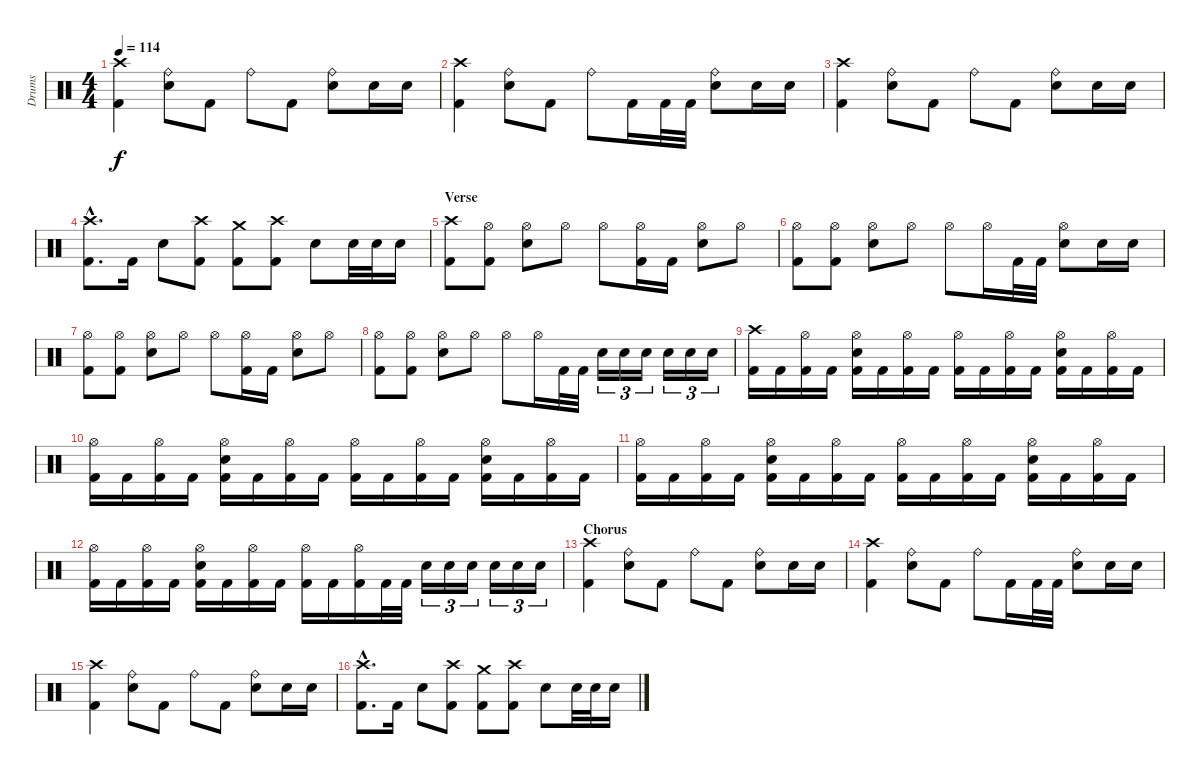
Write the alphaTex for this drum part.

\track ("Drums" "Drums") {instrument percussion}
\staff {score}
\articulation defaults
\ts (4 4)
\tempo 114
\clef neutral
\ks c
("Crash high (hit)" "Kick (hit) 2").4{dy f} ("Ride (bell)" "Electric Snare (hit)").8 "Kick (hit) 2".8 "Ride (bell)".8 "Kick (hit) 2".8 ("Ride (bell)" "Electric Snare (hit)").8 "Electric Snare (hit)".16 "Electric Snare (hit)".16 |
("Crash high (hit)" "Kick (hit) 2").4 ("Ride (bell)" "Electric Snare (hit)").8 "Kick (hit) 2".8 "Ride (bell)".8 "Kick (hit) 2".16 "Kick (hit) 2".32 "Kick (hit) 2".32 ("Ride (bell)" "Electric Snare (hit)").8 "Electric Snare (hit)".16 "Electric Snare (hit)".16 |
("Crash high (hit)" "Kick (hit) 2").4 ("Ride (bell)" "Electric Snare (hit)").8 "Kick (hit) 2".8 "Ride (bell)".8 "Kick (hit) 2".8 ("Ride (bell)" "Electric Snare (hit)").8 "Electric Snare (hit)".16 "Electric Snare (hit)".16 |
("Crash high (hit)"{hac} "Kick (hit) 2"{hac}).8{d} "Kick (hit) 2".16 "Electric Snare (hit)".8 ("Crash high (hit)" "Kick (hit) 2").8 ("Crash medium (hit)" "Kick (hit) 2").8 ("Crash high (hit)" "Kick (hit) 2").8 "Electric Snare (hit)".8 "Electric Snare (hit)".32 "Electric Snare (hit)".32 "Electric Snare (hit)".16 |
\section ("" "Verse")
("Crash high (hit)" "Kick (hit) 2").8 ("Hi-Hat (open)" "Kick (hit) 2").8 ("Hi-Hat (open)" "Electric Snare (hit)").8 "Hi-Hat (open)".8 "Hi-Hat (open)".8 ("Hi-Hat (open)" "Kick (hit) 2").16 "Kick (hit) 2".16 ("Hi-Hat (open)" "Electric Snare (hit)").8 "Hi-Hat (open)".8 |
("Hi-Hat (open)" "Kick (hit) 2").8 ("Hi-Hat (open)" "Kick (hit) 2").8 ("Hi-Hat (open)" "Electric Snare (hit)").8 "Hi-Hat (open)".8 "Hi-Hat (open)".8 "Hi-Hat (open)".16 "Kick (hit) 2".32 "Kick (hit) 2".32 ("Hi-Hat (open)" "Electric Snare (hit)").8 "Electric Snare (hit)".16 "Electric Snare (hit)".16 |
("Hi-Hat (open)" "Kick (hit) 2").8 ("Hi-Hat (open)" "Kick (hit) 2").8 ("Hi-Hat (open)" "Electric Snare (hit)").8 "Hi-Hat (open)".8 "Hi-Hat (open)".8 ("Hi-Hat (open)" "Kick (hit) 2").16 "Kick (hit) 2".16 ("Hi-Hat (open)" "Electric Snare (hit)").8 "Hi-Hat (open)".8 |
("Hi-Hat (open)" "Kick (hit) 2").8 ("Hi-Hat (open)" "Kick (hit) 2").8 ("Hi-Hat (open)" "Electric Snare (hit)").8 "Hi-Hat (open)".8 "Hi-Hat (open)".8 "Hi-Hat (open)".16 "Kick (hit) 2".32 "Kick (hit) 2".32 "Electric Snare (hit)".16{tu (3 2)} "Electric Snare (hit)".16{tu (3 2)} "Electric Snare (hit)".16{tu (3 2)} "Electric Snare (hit)".16{tu (3 2)} "Electric Snare (hit)".16{tu (3 2)} "Electric Snare (hit)".16{tu (3 2)} |
("Crash high (hit)" "Kick (hit) 2").16 "Kick (hit) 2".16 ("Hi-Hat (open)" "Kick (hit) 2").16 "Kick (hit) 2".16 ("Hi-Hat (open)" "Electric Snare (hit)" "Kick (hit) 2").16 "Kick (hit) 2".16 ("Hi-Hat (open)" "Kick (hit) 2").16 "Kick (hit) 2".16 ("Hi-Hat (open)" "Kick (hit) 2").16 "Kick (hit) 2".16 ("Hi-Hat (open)" "Kick (hit) 2").16 "Kick (hit) 2".16 ("Hi-Hat (open)" "Electric Snare (hit)" "Kick (hit) 2").16 "Kick (hit) 2".16 ("Hi-Hat (open)" "Kick (hit) 2").16 "Kick (hit) 2".16 |
("Hi-Hat (open)" "Kick (hit) 2").16 "Kick (hit) 2".16 ("Hi-Hat (open)" "Kick (hit) 2").16 "Kick (hit) 2".16 ("Hi-Hat (open)" "Electric Snare (hit)" "Kick (hit) 2").16 "Kick (hit) 2".16 ("Hi-Hat (open)" "Kick (hit) 2").16 "Kick (hit) 2".16 ("Hi-Hat (open)" "Kick (hit) 2").16 "Kick (hit) 2".16 ("Hi-Hat (open)" "Kick (hit) 2").16 "Kick (hit) 2".16 ("Hi-Hat (open)" "Electric Snare (hit)" "Kick (hit) 2").16 "Kick (hit) 2".16 ("Hi-Hat (open)" "Kick (hit) 2").16 "Kick (hit) 2".16 |
("Hi-Hat (open)" "Kick (hit) 2").16 "Kick (hit) 2".16 ("Hi-Hat (open)" "Kick (hit) 2").16 "Kick (hit) 2".16 ("Hi-Hat (open)" "Electric Snare (hit)" "Kick (hit) 2").16 "Kick (hit) 2".16 ("Hi-Hat (open)" "Kick (hit) 2").16 "Kick (hit) 2".16 ("Hi-Hat (open)" "Kick (hit) 2").16 "Kick (hit) 2".16 ("Hi-Hat (open)" "Kick (hit) 2").16 "Kick (hit) 2".16 ("Hi-Hat (open)" "Electric Snare (hit)" "Kick (hit) 2").16 "Kick (hit) 2".16 ("Hi-Hat (open)" "Kick (hit) 2").16 "Kick (hit) 2".16 |
("Hi-Hat (open)" "Kick (hit) 2").16 "Kick (hit) 2".16 ("Hi-Hat (open)" "Kick (hit) 2").16 "Kick (hit) 2".16 ("Hi-Hat (open)" "Electric Snare (hit)" "Kick (hit) 2").16 "Kick (hit) 2".16 ("Hi-Hat (open)" "Kick (hit) 2").16 "Kick (hit) 2".16 ("Hi-Hat (open)" "Kick (hit) 2").16 "Kick (hit) 2".16 ("Hi-Hat (open)" "Kick (hit) 2").16 "Kick (hit) 2".32 "Kick (hit) 2".32 "Electric Snare (hit)".16{tu (3 2)} "Electric Snare (hit)".16{tu (3 2)} "Electric Snare (hit)".16{tu (3 2)} "Electric Snare (hit)".16{tu (3 2)} "Electric Snare (hit)".16{tu (3 2)} "Electric Snare (hit)".16{tu (3 2)} |
\section ("" "Chorus")
("Crash high (hit)" "Kick (hit) 2").4 ("Ride (bell)" "Electric Snare (hit)").8 "Kick (hit) 2".8 "Ride (bell)".8 "Kick (hit) 2".8 ("Ride (bell)" "Electric Snare (hit)").8 "Electric Snare (hit)".16 "Electric Snare (hit)".16 |
("Crash high (hit)" "Kick (hit) 2").4 ("Ride (bell)" "Electric Snare (hit)").8 "Kick (hit) 2".8 "Ride (bell)".8 "Kick (hit) 2".16 "Kick (hit) 2".32 "Kick (hit) 2".32 ("Ride (bell)" "Electric Snare (hit)").8 "Electric Snare (hit)".16 "Electric Snare (hit)".16 |
("Crash high (hit)" "Kick (hit) 2").4 ("Ride (bell)" "Electric Snare (hit)").8 "Kick (hit) 2".8 "Ride (bell)".8 "Kick (hit) 2".8 ("Ride (bell)" "Electric Snare (hit)").8 "Electric Snare (hit)".16 "Electric Snare (hit)".16 |
("Crash high (hit)"{hac} "Kick (hit) 2"{hac}).8{d} "Kick (hit) 2".16 "Electric Snare (hit)".8 ("Crash high (hit)" "Kick (hit) 2").8 ("Crash medium (hit)" "Kick (hit) 2").8 ("Crash high (hit)" "Kick (hit) 2").8 "Electric Snare (hit)".8 "Electric Snare (hit)".32 "Electric Snare (hit)".32 "Electric Snare (hit)".16
